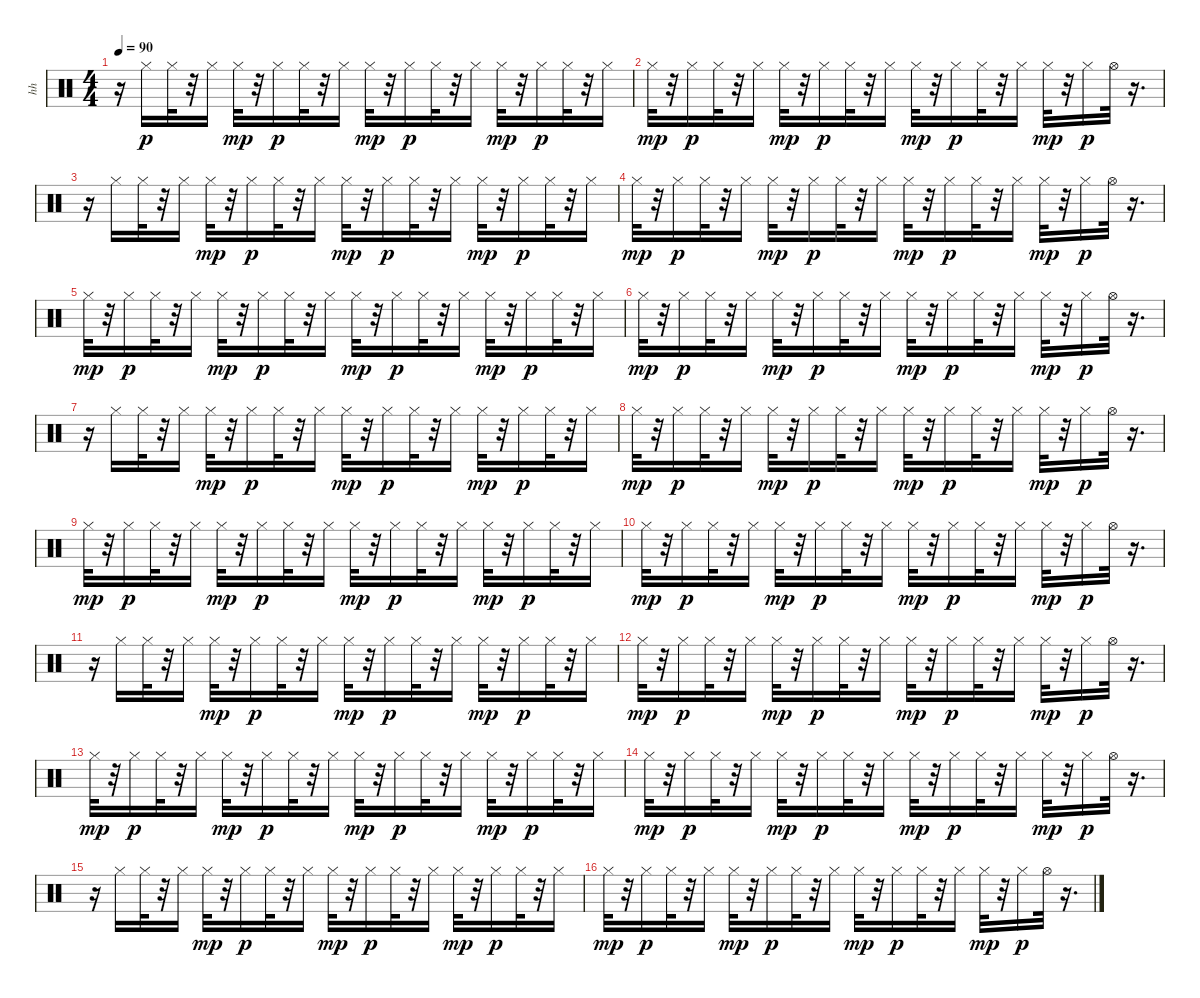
\track ("hh" "hh") {instrument percussion}
\staff {score}
\articulation defaults
\ts (4 4)
\tempo 90
\clef neutral
\ks c
r.16{dy p} "Hi-Hat (closed)".16 "Hi-Hat (closed)".32 r.32 "Hi-Hat (closed)".16 "Hi-Hat (closed)".32{dy mp} r.32 "Hi-Hat (closed)".16{dy p} "Hi-Hat (closed)".32 r.32 "Hi-Hat (closed)".16 "Hi-Hat (closed)".32{dy mp} r.32 "Hi-Hat (closed)".16{dy p} "Hi-Hat (closed)".32 r.32 "Hi-Hat (closed)".16 "Hi-Hat (closed)".32{dy mp} r.32 "Hi-Hat (closed)".16{dy p} "Hi-Hat (closed)".32 r.32 "Hi-Hat (closed)".16 |
"Hi-Hat (closed)".32{dy mp} r.32 "Hi-Hat (closed)".16{dy p} "Hi-Hat (closed)".32 r.32 "Hi-Hat (closed)".16 "Hi-Hat (closed)".32{dy mp} r.32 "Hi-Hat (closed)".16{dy p} "Hi-Hat (closed)".32 r.32 "Hi-Hat (closed)".16 "Hi-Hat (closed)".32{dy mp} r.32 "Hi-Hat (closed)".16{dy p} "Hi-Hat (closed)".32 r.32 "Hi-Hat (closed)".16 "Hi-Hat (closed)".32{dy mp} r.32 "Hi-Hat (closed)".16{dy p} "Hi-Hat (open)".32 r.16{d} |
r.16 "Hi-Hat (closed)".16 "Hi-Hat (closed)".32 r.32 "Hi-Hat (closed)".16 "Hi-Hat (closed)".32{dy mp} r.32 "Hi-Hat (closed)".16{dy p} "Hi-Hat (closed)".32 r.32 "Hi-Hat (closed)".16 "Hi-Hat (closed)".32{dy mp} r.32 "Hi-Hat (closed)".16{dy p} "Hi-Hat (closed)".32 r.32 "Hi-Hat (closed)".16 "Hi-Hat (closed)".32{dy mp} r.32 "Hi-Hat (closed)".16{dy p} "Hi-Hat (closed)".32 r.32 "Hi-Hat (closed)".16 |
"Hi-Hat (closed)".32{dy mp} r.32 "Hi-Hat (closed)".16{dy p} "Hi-Hat (closed)".32 r.32 "Hi-Hat (closed)".16 "Hi-Hat (closed)".32{dy mp} r.32 "Hi-Hat (closed)".16{dy p} "Hi-Hat (closed)".32 r.32 "Hi-Hat (closed)".16 "Hi-Hat (closed)".32{dy mp} r.32 "Hi-Hat (closed)".16{dy p} "Hi-Hat (closed)".32 r.32 "Hi-Hat (closed)".16 "Hi-Hat (closed)".32{dy mp} r.32 "Hi-Hat (closed)".16{dy p} "Hi-Hat (open)".32 r.16{d} |
"Hi-Hat (closed)".32{dy mp} r.32 "Hi-Hat (closed)".16{dy p} "Hi-Hat (closed)".32 r.32 "Hi-Hat (closed)".16 "Hi-Hat (closed)".32{dy mp} r.32 "Hi-Hat (closed)".16{dy p} "Hi-Hat (closed)".32 r.32 "Hi-Hat (closed)".16 "Hi-Hat (closed)".32{dy mp} r.32 "Hi-Hat (closed)".16{dy p} "Hi-Hat (closed)".32 r.32 "Hi-Hat (closed)".16 "Hi-Hat (closed)".32{dy mp} r.32 "Hi-Hat (closed)".16{dy p} "Hi-Hat (closed)".32 r.32 "Hi-Hat (closed)".16 |
"Hi-Hat (closed)".32{dy mp} r.32 "Hi-Hat (closed)".16{dy p} "Hi-Hat (closed)".32 r.32 "Hi-Hat (closed)".16 "Hi-Hat (closed)".32{dy mp} r.32 "Hi-Hat (closed)".16{dy p} "Hi-Hat (closed)".32 r.32 "Hi-Hat (closed)".16 "Hi-Hat (closed)".32{dy mp} r.32 "Hi-Hat (closed)".16{dy p} "Hi-Hat (closed)".32 r.32 "Hi-Hat (closed)".16 "Hi-Hat (closed)".32{dy mp} r.32 "Hi-Hat (closed)".16{dy p} "Hi-Hat (open)".32 r.16{d} |
r.16 "Hi-Hat (closed)".16 "Hi-Hat (closed)".32 r.32 "Hi-Hat (closed)".16 "Hi-Hat (closed)".32{dy mp} r.32 "Hi-Hat (closed)".16{dy p} "Hi-Hat (closed)".32 r.32 "Hi-Hat (closed)".16 "Hi-Hat (closed)".32{dy mp} r.32 "Hi-Hat (closed)".16{dy p} "Hi-Hat (closed)".32 r.32 "Hi-Hat (closed)".16 "Hi-Hat (closed)".32{dy mp} r.32 "Hi-Hat (closed)".16{dy p} "Hi-Hat (closed)".32 r.32 "Hi-Hat (closed)".16 |
"Hi-Hat (closed)".32{dy mp} r.32 "Hi-Hat (closed)".16{dy p} "Hi-Hat (closed)".32 r.32 "Hi-Hat (closed)".16 "Hi-Hat (closed)".32{dy mp} r.32 "Hi-Hat (closed)".16{dy p} "Hi-Hat (closed)".32 r.32 "Hi-Hat (closed)".16 "Hi-Hat (closed)".32{dy mp} r.32 "Hi-Hat (closed)".16{dy p} "Hi-Hat (closed)".32 r.32 "Hi-Hat (closed)".16 "Hi-Hat (closed)".32{dy mp} r.32 "Hi-Hat (closed)".16{dy p} "Hi-Hat (open)".32 r.16{d} |
"Hi-Hat (closed)".32{dy mp} r.32 "Hi-Hat (closed)".16{dy p} "Hi-Hat (closed)".32 r.32 "Hi-Hat (closed)".16 "Hi-Hat (closed)".32{dy mp} r.32 "Hi-Hat (closed)".16{dy p} "Hi-Hat (closed)".32 r.32 "Hi-Hat (closed)".16 "Hi-Hat (closed)".32{dy mp} r.32 "Hi-Hat (closed)".16{dy p} "Hi-Hat (closed)".32 r.32 "Hi-Hat (closed)".16 "Hi-Hat (closed)".32{dy mp} r.32 "Hi-Hat (closed)".16{dy p} "Hi-Hat (closed)".32 r.32 "Hi-Hat (closed)".16 |
"Hi-Hat (closed)".32{dy mp} r.32 "Hi-Hat (closed)".16{dy p} "Hi-Hat (closed)".32 r.32 "Hi-Hat (closed)".16 "Hi-Hat (closed)".32{dy mp} r.32 "Hi-Hat (closed)".16{dy p} "Hi-Hat (closed)".32 r.32 "Hi-Hat (closed)".16 "Hi-Hat (closed)".32{dy mp} r.32 "Hi-Hat (closed)".16{dy p} "Hi-Hat (closed)".32 r.32 "Hi-Hat (closed)".16 "Hi-Hat (closed)".32{dy mp} r.32 "Hi-Hat (closed)".16{dy p} "Hi-Hat (open)".32 r.16{d} |
r.16 "Hi-Hat (closed)".16 "Hi-Hat (closed)".32 r.32 "Hi-Hat (closed)".16 "Hi-Hat (closed)".32{dy mp} r.32 "Hi-Hat (closed)".16{dy p} "Hi-Hat (closed)".32 r.32 "Hi-Hat (closed)".16 "Hi-Hat (closed)".32{dy mp} r.32 "Hi-Hat (closed)".16{dy p} "Hi-Hat (closed)".32 r.32 "Hi-Hat (closed)".16 "Hi-Hat (closed)".32{dy mp} r.32 "Hi-Hat (closed)".16{dy p} "Hi-Hat (closed)".32 r.32 "Hi-Hat (closed)".16 |
"Hi-Hat (closed)".32{dy mp} r.32 "Hi-Hat (closed)".16{dy p} "Hi-Hat (closed)".32 r.32 "Hi-Hat (closed)".16 "Hi-Hat (closed)".32{dy mp} r.32 "Hi-Hat (closed)".16{dy p} "Hi-Hat (closed)".32 r.32 "Hi-Hat (closed)".16 "Hi-Hat (closed)".32{dy mp} r.32 "Hi-Hat (closed)".16{dy p} "Hi-Hat (closed)".32 r.32 "Hi-Hat (closed)".16 "Hi-Hat (closed)".32{dy mp} r.32 "Hi-Hat (closed)".16{dy p} "Hi-Hat (open)".32 r.16{d} |
"Hi-Hat (closed)".32{dy mp} r.32 "Hi-Hat (closed)".16{dy p} "Hi-Hat (closed)".32 r.32 "Hi-Hat (closed)".16 "Hi-Hat (closed)".32{dy mp} r.32 "Hi-Hat (closed)".16{dy p} "Hi-Hat (closed)".32 r.32 "Hi-Hat (closed)".16 "Hi-Hat (closed)".32{dy mp} r.32 "Hi-Hat (closed)".16{dy p} "Hi-Hat (closed)".32 r.32 "Hi-Hat (closed)".16 "Hi-Hat (closed)".32{dy mp} r.32 "Hi-Hat (closed)".16{dy p} "Hi-Hat (closed)".32 r.32 "Hi-Hat (closed)".16 |
"Hi-Hat (closed)".32{dy mp} r.32 "Hi-Hat (closed)".16{dy p} "Hi-Hat (closed)".32 r.32 "Hi-Hat (closed)".16 "Hi-Hat (closed)".32{dy mp} r.32 "Hi-Hat (closed)".16{dy p} "Hi-Hat (closed)".32 r.32 "Hi-Hat (closed)".16 "Hi-Hat (closed)".32{dy mp} r.32 "Hi-Hat (closed)".16{dy p} "Hi-Hat (closed)".32 r.32 "Hi-Hat (closed)".16 "Hi-Hat (closed)".32{dy mp} r.32 "Hi-Hat (closed)".16{dy p} "Hi-Hat (open)".32 r.16{d} |
r.16 "Hi-Hat (closed)".16 "Hi-Hat (closed)".32 r.32 "Hi-Hat (closed)".16 "Hi-Hat (closed)".32{dy mp} r.32 "Hi-Hat (closed)".16{dy p} "Hi-Hat (closed)".32 r.32 "Hi-Hat (closed)".16 "Hi-Hat (closed)".32{dy mp} r.32 "Hi-Hat (closed)".16{dy p} "Hi-Hat (closed)".32 r.32 "Hi-Hat (closed)".16 "Hi-Hat (closed)".32{dy mp} r.32 "Hi-Hat (closed)".16{dy p} "Hi-Hat (closed)".32 r.32 "Hi-Hat (closed)".16 |
"Hi-Hat (closed)".32{dy mp} r.32 "Hi-Hat (closed)".16{dy p} "Hi-Hat (closed)".32 r.32 "Hi-Hat (closed)".16 "Hi-Hat (closed)".32{dy mp} r.32 "Hi-Hat (closed)".16{dy p} "Hi-Hat (closed)".32 r.32 "Hi-Hat (closed)".16 "Hi-Hat (closed)".32{dy mp} r.32 "Hi-Hat (closed)".16{dy p} "Hi-Hat (closed)".32 r.32 "Hi-Hat (closed)".16 "Hi-Hat (closed)".32{dy mp} r.32 "Hi-Hat (closed)".16{dy p} "Hi-Hat (open)".32 r.16{d}
